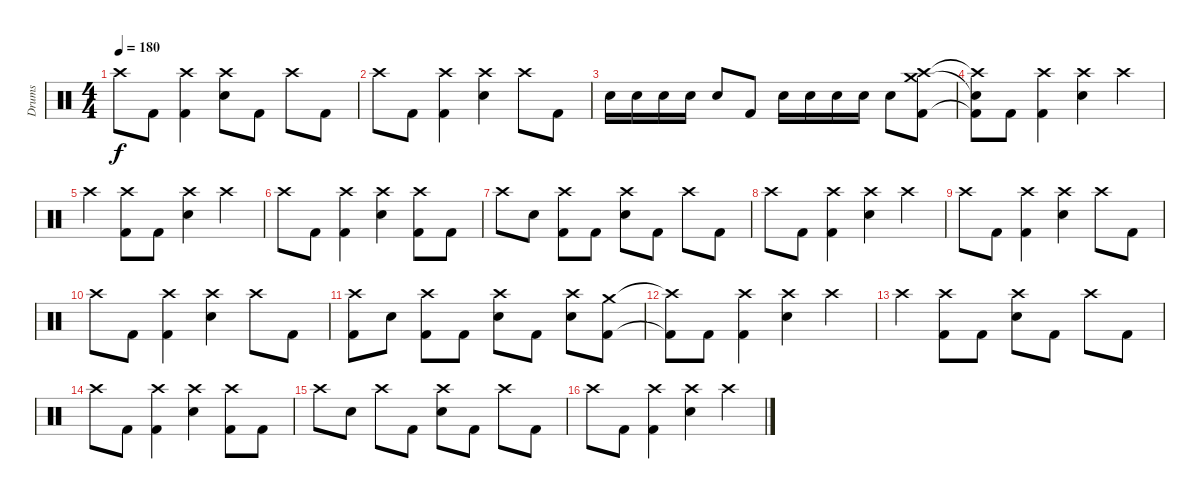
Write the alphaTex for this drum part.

\track ("Drums" "Drums") {instrument percussion}
\staff {score}
\articulation defaults
\ts (4 4)
\tempo 180
\clef neutral
\ks c "Crash high (hit)".8{dy f} "Kick (hit) 2".8
("Crash high (hit)" "Kick (hit) 2").4 ("Crash high (hit)" "Electric Snare (hit)").8 "Kick (hit) 2".8 "Crash high (hit)".8 "Kick (hit) 2".8 |
"Crash high (hit)".8 "Kick (hit) 2".8 ("Crash high (hit)" "Kick (hit) 2").4 ("Crash high (hit)" "Electric Snare (hit)").4 "Crash high (hit)".8 "Kick (hit) 2".8 |
"Electric Snare (hit)".16 "Electric Snare (hit)".16 "Electric Snare (hit)".16 "Electric Snare (hit)".16 "Electric Snare (hit)".8 "Kick (hit) 2".8 "Electric Snare (hit)".16 "Electric Snare (hit)".16 "Electric Snare (hit)".16 "Electric Snare (hit)".16 "Electric Snare (hit)".8 ("Crash high (hit)" "Crash medium (hit)" "Kick (hit) 2").8 |
("Crash high (hit)"{t} "Snare (hit)"{t} "Kick (hit) 2"{t}).8 "Kick (hit) 2".8 ("Crash high (hit)" "Kick (hit) 2").4 ("Crash high (hit)" "Electric Snare (hit)").4 "Crash high (hit)".4 |
"Crash high (hit)".4 ("Crash high (hit)" "Kick (hit) 2").8 "Kick (hit) 2".8 ("Crash high (hit)" "Electric Snare (hit)").4 "Crash high (hit)".4 |
"Crash high (hit)".8 "Kick (hit) 2".8 ("Crash high (hit)" "Kick (hit) 2").4 ("Crash high (hit)" "Electric Snare (hit)").4 ("Crash high (hit)" "Kick (hit) 2").8 "Kick (hit) 2".8 |
"Crash high (hit)".8 "Electric Snare (hit)".8 ("Crash high (hit)" "Kick (hit) 2").8 "Kick (hit) 2".8 ("Crash high (hit)" "Electric Snare (hit)").8 "Kick (hit) 2".8 "Crash high (hit)".8 "Kick (hit) 2".8 |
"Crash high (hit)".8 "Kick (hit) 2".8 ("Crash high (hit)" "Kick (hit) 2").4 ("Crash high (hit)" "Electric Snare (hit)").4 "Crash high (hit)".4 |
"Crash high (hit)".8 "Kick (hit) 2".8 ("Crash high (hit)" "Kick (hit) 2").4 ("Crash high (hit)" "Electric Snare (hit)").4 "Crash high (hit)".8 "Kick (hit) 2".8 |
"Crash high (hit)".8 "Kick (hit) 2".8 ("Crash high (hit)" "Kick (hit) 2").4 ("Crash high (hit)" "Electric Snare (hit)").4 "Crash high (hit)".8 "Kick (hit) 2".8 |
("Crash high (hit)" "Kick (hit) 2").8 "Electric Snare (hit)".8 ("Crash high (hit)" "Kick (hit) 2").8 "Kick (hit) 2".8 ("Crash high (hit)" "Electric Snare (hit)").8 "Kick (hit) 2".8 ("Crash high (hit)" "Electric Snare (hit)").8 ("Crash medium (hit)" "Kick (hit) 2").8 |
("Crash high (hit)"{t} "Kick (hit) 2"{t}).8 "Kick (hit) 2".8 ("Crash high (hit)" "Kick (hit) 2").4 ("Crash high (hit)" "Electric Snare (hit)").4 "Crash high (hit)".4 |
"Crash high (hit)".4 ("Crash high (hit)" "Kick (hit) 2").8 "Kick (hit) 2".8 ("Crash high (hit)" "Electric Snare (hit)").8 "Kick (hit) 2".8 "Crash high (hit)".8 "Kick (hit) 2".8 |
"Crash high (hit)".8 "Kick (hit) 2".8 ("Crash high (hit)" "Kick (hit) 2").4 ("Crash high (hit)" "Electric Snare (hit)").4 ("Crash high (hit)" "Kick (hit) 2").8 "Kick (hit) 2".8 |
"Crash high (hit)".8 "Electric Snare (hit)".8 "Crash high (hit)".8 "Kick (hit) 2".8 ("Crash high (hit)" "Electric Snare (hit)").8 "Kick (hit) 2".8 "Crash high (hit)".8 "Kick (hit) 2".8 |
"Crash high (hit)".8 "Kick (hit) 2".8 ("Crash high (hit)" "Kick (hit) 2").4 ("Crash high (hit)" "Electric Snare (hit)").4 "Crash high (hit)".4
